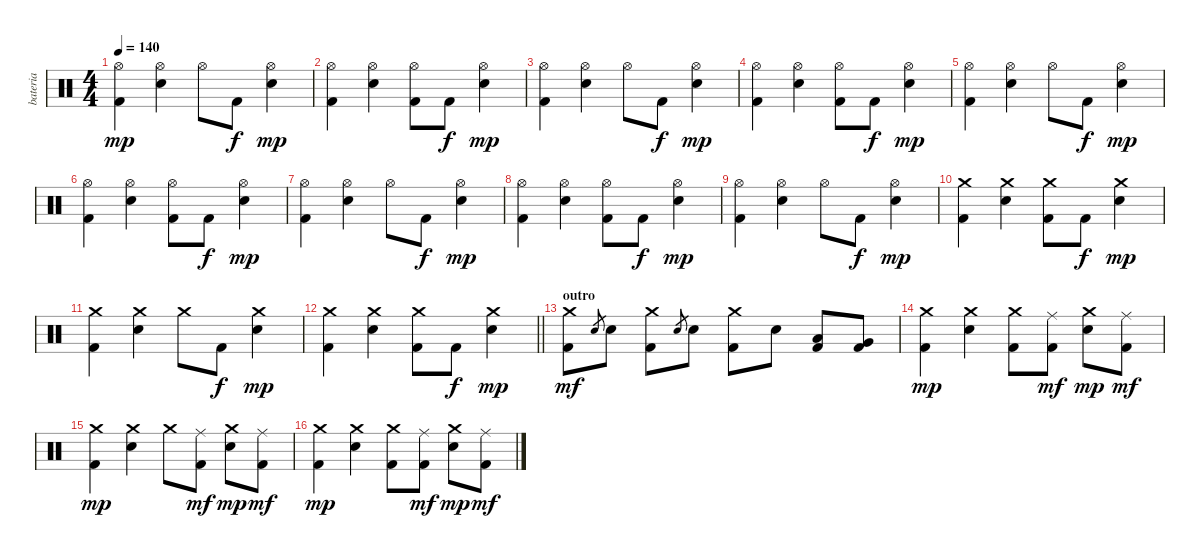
\track ("bateria" "bateria") {instrument percussion}
\staff {score}
\articulation defaults
\ts (4 4)
\tempo 140
\clef neutral
\ks c
("Hi-Hat (open)" "Kick (hit) 2").4{dy mp} ("Hi-Hat (open)" "Snare (hit) 2").4 "Hi-Hat (open)".8 "Kick (hit) 2".8{dy f} ("Hi-Hat (open)" "Snare (hit) 2").4{dy mp} |
("Hi-Hat (open)" "Kick (hit) 2").4 ("Hi-Hat (open)" "Snare (hit) 2").4 ("Hi-Hat (open)" "Kick (hit) 2").8 "Kick (hit) 2".8{dy f} ("Hi-Hat (open)" "Snare (hit) 2").4{dy mp} |
("Hi-Hat (open)" "Kick (hit) 2").4 ("Hi-Hat (open)" "Snare (hit) 2").4 "Hi-Hat (open)".8 "Kick (hit) 2".8{dy f} ("Hi-Hat (open)" "Snare (hit) 2").4{dy mp} |
("Hi-Hat (open)" "Kick (hit) 2").4 ("Hi-Hat (open)" "Snare (hit) 2").4 ("Hi-Hat (open)" "Kick (hit) 2").8 "Kick (hit) 2".8{dy f} ("Hi-Hat (open)" "Snare (hit) 2").4{dy mp} |
("Hi-Hat (open)" "Kick (hit) 2").4 ("Hi-Hat (open)" "Snare (hit) 2").4 "Hi-Hat (open)".8 "Kick (hit) 2".8{dy f} ("Hi-Hat (open)" "Snare (hit) 2").4{dy mp} |
("Hi-Hat (open)" "Kick (hit) 2").4 ("Hi-Hat (open)" "Snare (hit) 2").4 ("Hi-Hat (open)" "Kick (hit) 2").8 "Kick (hit) 2".8{dy f} ("Hi-Hat (open)" "Snare (hit) 2").4{dy mp} |
("Hi-Hat (open)" "Kick (hit) 2").4 ("Hi-Hat (open)" "Snare (hit) 2").4 "Hi-Hat (open)".8 "Kick (hit) 2".8{dy f} ("Hi-Hat (open)" "Snare (hit) 2").4{dy mp} |
("Hi-Hat (open)" "Kick (hit) 2").4 ("Hi-Hat (open)" "Snare (hit) 2").4 ("Hi-Hat (open)" "Kick (hit) 2").8 "Kick (hit) 2".8{dy f} ("Hi-Hat (open)" "Snare (hit) 2").4{dy mp} |
("Hi-Hat (open)" "Kick (hit) 2").4 ("Hi-Hat (open)" "Snare (hit) 2").4 "Hi-Hat (open)".8 "Kick (hit) 2".8{dy f} ("Hi-Hat (open)" "Snare (hit) 2").4{dy mp} |
("Crash medium (hit)" "Kick (hit) 2").4 ("Crash medium (hit)" "Snare (hit) 2").4 ("Crash medium (hit)" "Kick (hit) 2").8 "Kick (hit) 2".8{dy f} ("Crash medium (hit)" "Snare (hit) 2").4{dy mp} |
("Crash medium (hit)" "Kick (hit) 2").4 ("Crash medium (hit)" "Snare (hit) 2").4 "Crash medium (hit)".8 "Kick (hit) 2".8{dy f} ("Crash medium (hit)" "Snare (hit) 2").4{dy mp} |
\barLineRight lightlight
("Crash medium (hit)" "Kick (hit) 2").4 ("Crash medium (hit)" "Snare (hit) 2").4 ("Crash medium (hit)" "Kick (hit) 2").8 "Kick (hit) 2".8{dy f} ("Crash medium (hit)" "Snare (hit) 2").4{dy mp} |
\section ("" "outro")
("Crash medium (hit)" "Kick (hit) 2").8{dy mf} "Snare (hit) 2".8{gr} "Snare (hit) 2".8 ("Crash medium (hit)" "Kick (hit) 2").8 "Snare (hit) 2".8{gr} "Snare (hit) 2".8 ("Crash medium (hit)" "Kick (hit) 2").8 "Snare (hit) 2".8 ("Low Tom (hit)" "Kick (hit) 2").8 ("Very Low Tom (hit)" "Kick (hit) 2").8 |
("Crash medium (hit)" "Kick (hit) 2").4{dy mp} ("Crash medium (hit)" "Snare (hit) 2").4 ("Crash medium (hit)" "Kick (hit) 2").8 ("Ride (middle)" "Kick (hit) 2").8{dy mf} ("Crash medium (hit)" "Snare (hit) 2").8{dy mp} ("Ride (middle)" "Kick (hit) 2").8{dy mf} |
("Crash medium (hit)" "Kick (hit) 2").4{dy mp} ("Crash medium (hit)" "Snare (hit) 2").4 "Crash medium (hit)".8 ("Ride (middle)" "Kick (hit) 2").8{dy mf} ("Crash medium (hit)" "Snare (hit) 2").8{dy mp} ("Ride (middle)" "Kick (hit) 2").8{dy mf} |
("Crash medium (hit)" "Kick (hit) 2").4{dy mp} ("Crash medium (hit)" "Snare (hit) 2").4 ("Crash medium (hit)" "Kick (hit) 2").8 ("Ride (middle)" "Kick (hit) 2").8{dy mf} ("Crash medium (hit)" "Snare (hit) 2").8{dy mp} ("Ride (middle)" "Kick (hit) 2").8{dy mf}
